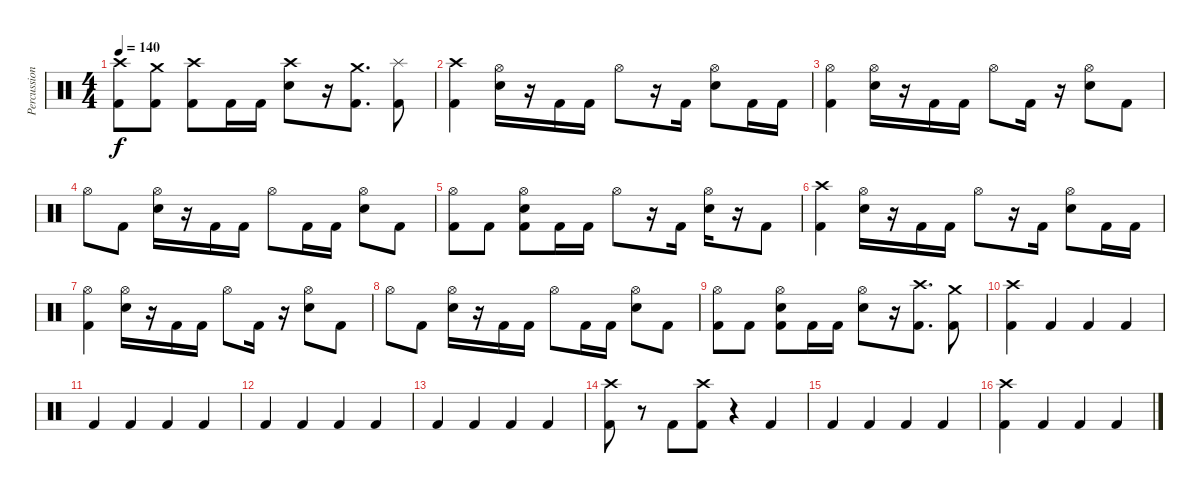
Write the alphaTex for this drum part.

\track ("Percussion" "Percussion") {instrument percussion}
\staff {score}
\articulation defaults
\ts (4 4)
\tempo 140
\clef neutral
\ks c
("Crash high (hit)" "Kick (hit) 2").8{dy f} ("Crash medium (hit)" "Kick (hit) 2").8 ("Crash high (hit)" "Kick (hit) 2").8 "Kick (hit) 2".16 "Kick (hit) 2".16 ("Crash high (hit)" "Electric Snare (hit)").8 r.16 ("Crash medium (hit)" "Kick (hit) 2").8{d} ("Splash (hit)" "Kick (hit) 2").8 |
("Crash high (hit)" "Kick (hit) 2").4 ("Hi-Hat (open)" "Electric Snare (hit)").16 r.16 "Kick (hit) 2".16 "Kick (hit) 2".16 "Hi-Hat (open)".8 r.16 "Kick (hit) 2".16 ("Hi-Hat (open)" "Electric Snare (hit)").8 "Kick (hit) 2".16 "Kick (hit) 2".16 |
("Hi-Hat (open)" "Kick (hit) 2").4 ("Hi-Hat (open)" "Electric Snare (hit)").16 r.16 "Kick (hit) 2".16 "Kick (hit) 2".16 "Hi-Hat (open)".8 "Kick (hit) 2".16 r.16 ("Hi-Hat (open)" "Electric Snare (hit)").8 "Kick (hit) 2".8 |
"Hi-Hat (open)".8 "Kick (hit) 2".8 ("Hi-Hat (open)" "Electric Snare (hit)").16 r.16 "Kick (hit) 2".16 "Kick (hit) 2".16 "Hi-Hat (open)".8 "Kick (hit) 2".16 "Kick (hit) 2".16 ("Hi-Hat (open)" "Electric Snare (hit)").8 "Kick (hit) 2".8 |
("Hi-Hat (open)" "Kick (hit) 2").8 "Kick (hit) 2".8 ("Hi-Hat (open)" "Electric Snare (hit)" "Kick (hit) 2").8 "Kick (hit) 2".16 "Kick (hit) 2".16 "Hi-Hat (open)".8 r.16 "Kick (hit) 2".16 ("Hi-Hat (open)" "Electric Snare (hit)").16 r.16 "Kick (hit) 2".8 |
("Crash high (hit)" "Kick (hit) 2").4 ("Hi-Hat (open)" "Electric Snare (hit)").16 r.16 "Kick (hit) 2".16 "Kick (hit) 2".16 "Hi-Hat (open)".8 r.16 "Kick (hit) 2".16 ("Hi-Hat (open)" "Electric Snare (hit)").8 "Kick (hit) 2".16 "Kick (hit) 2".16 |
("Hi-Hat (open)" "Kick (hit) 2").4 ("Hi-Hat (open)" "Electric Snare (hit)").16 r.16 "Kick (hit) 2".16 "Kick (hit) 2".16 "Hi-Hat (open)".8 "Kick (hit) 2".16 r.16 ("Hi-Hat (open)" "Electric Snare (hit)").8 "Kick (hit) 2".8 |
"Hi-Hat (open)".8 "Kick (hit) 2".8 ("Hi-Hat (open)" "Electric Snare (hit)").16 r.16 "Kick (hit) 2".16 "Kick (hit) 2".16 "Hi-Hat (open)".8 "Kick (hit) 2".16 "Kick (hit) 2".16 ("Hi-Hat (open)" "Electric Snare (hit)").8 "Kick (hit) 2".8 |
("Hi-Hat (open)" "Kick (hit) 2").8 "Kick (hit) 2".8 ("Hi-Hat (open)" "Electric Snare (hit)" "Kick (hit) 2").8 "Kick (hit) 2".16 "Kick (hit) 2".16 ("Hi-Hat (open)" "Electric Snare (hit)").8 r.16 ("Crash high (hit)" "Kick (hit) 2").8{d} ("Crash medium (hit)" "Kick (hit) 2").8 |
("Crash high (hit)" "Kick (hit) 2").4 "Kick (hit) 2".4 "Kick (hit) 2".4 "Kick (hit) 2".4 |
"Kick (hit) 2".4 "Kick (hit) 2".4 "Kick (hit) 2".4 "Kick (hit) 2".4 |
"Kick (hit) 2".4 "Kick (hit) 2".4 "Kick (hit) 2".4 "Kick (hit) 2".4 |
"Kick (hit) 2".4 "Kick (hit) 2".4 "Kick (hit) 2".4 "Kick (hit) 2".4 |
("Crash high (hit)" "Kick (hit) 2").8 r.8 "Kick (hit) 2".8 ("Crash high (hit)" "Kick (hit) 2").8 r.4 "Kick (hit) 2".4 |
"Kick (hit) 2".4 "Kick (hit) 2".4 "Kick (hit) 2".4 "Kick (hit) 2".4 |
("Crash high (hit)" "Kick (hit) 2").4 "Kick (hit) 2".4 "Kick (hit) 2".4 "Kick (hit) 2".4
